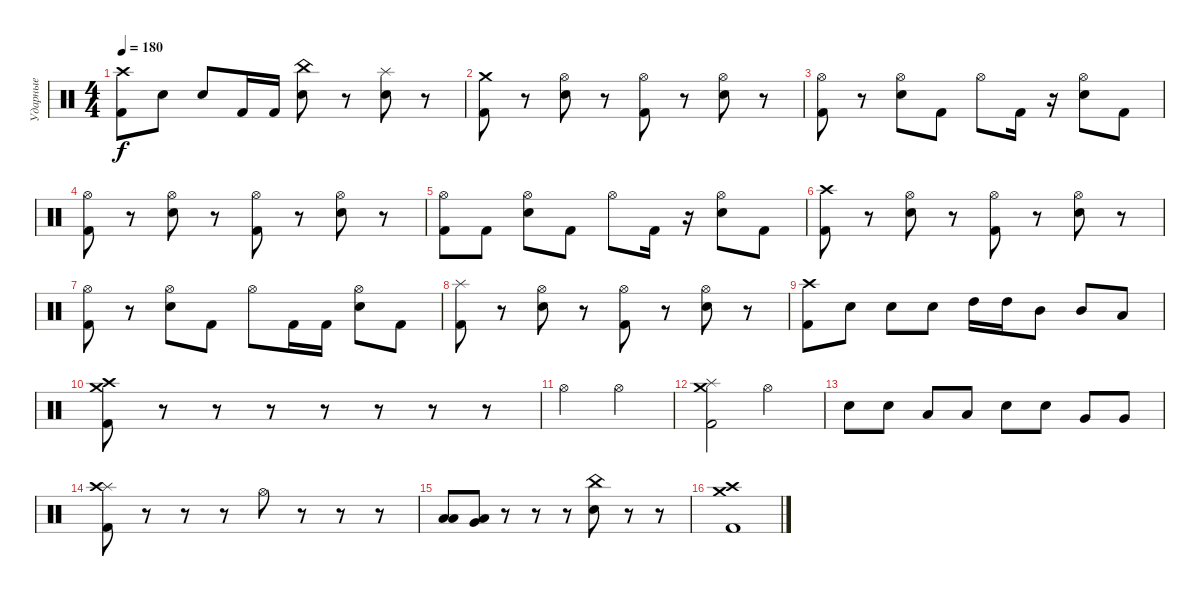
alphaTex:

\track ("Ударные" "Ударные") {instrument percussion}
\staff {score}
\articulation defaults
\ts (4 4)
\tempo 180
\clef neutral
\ks c
("Kick (hit) 2" "Crash high (hit)").8{dy f} "Electric Snare (hit)".8 "Electric Snare (hit)".8 "Kick (hit) 2".16 "Kick (hit) 2".16 ("Electric Snare (hit)" "China (hit)").8 r.8 ("Electric Snare (hit)" "Splash (hit)").8 r.8 |
("Kick (hit) 2" "Crash medium (hit)").8 r.8 ("Electric Snare (hit)" "Hi-Hat (open)").8 r.8 ("Kick (hit) 2" "Hi-Hat (open)").8 r.8 ("Electric Snare (hit)" "Hi-Hat (open)").8 r.8 |
("Kick (hit) 2" "Hi-Hat (open)").8 r.8 ("Electric Snare (hit)" "Hi-Hat (open)").8 "Kick (hit) 2".8 "Hi-Hat (open)".8 "Kick (hit) 2".16 r.16 ("Electric Snare (hit)" "Hi-Hat (open)").8 "Kick (hit) 2".8 |
("Kick (hit) 2" "Hi-Hat (open)").8 r.8 ("Electric Snare (hit)" "Hi-Hat (open)").8 r.8 ("Kick (hit) 2" "Hi-Hat (open)").8 r.8 ("Electric Snare (hit)" "Hi-Hat (open)").8 r.8 |
("Kick (hit) 2" "Hi-Hat (open)").8 "Kick (hit) 2".8 ("Electric Snare (hit)" "Hi-Hat (open)").8 "Kick (hit) 2".8 "Hi-Hat (open)".8 "Kick (hit) 2".16 r.16 ("Electric Snare (hit)" "Hi-Hat (open)").8 "Kick (hit) 2".8 |
("Kick (hit) 2" "Crash high (hit)").8 r.8 ("Electric Snare (hit)" "Hi-Hat (open)").8 r.8 ("Kick (hit) 2" "Hi-Hat (open)").8 r.8 ("Electric Snare (hit)" "Hi-Hat (open)").8 r.8 |
("Kick (hit) 2" "Hi-Hat (open)").8 r.8 ("Electric Snare (hit)" "Hi-Hat (open)").8 "Kick (hit) 2".8 "Hi-Hat (open)".8 "Kick (hit) 2".16 "Kick (hit) 2".16 ("Electric Snare (hit)" "Hi-Hat (open)").8 "Kick (hit) 2".8 |
("Kick (hit) 2" "Splash (hit)").8 r.8 ("Electric Snare (hit)" "Hi-Hat (open)").8 r.8 ("Kick (hit) 2" "Hi-Hat (open)").8 r.8 ("Electric Snare (hit)" "Hi-Hat (open)").8 r.8 |
("Kick (hit) 2" "Crash high (hit)").8 "Electric Snare (hit)".8 "Electric Snare (hit)".8 "Electric Snare (hit)".8 "High Tom (hit)".16 "High Tom (hit)".16 "Mid Tom (hit)".8 "Mid Tom (hit)".8 "Low Tom (hit)".8 |
("Kick (hit) 2" "Crash medium (hit)" "Crash high (hit)").8 r.8 r.8 r.8 r.8 r.8 r.8 r.8 |
"Hi-Hat (open)".2 "Hi-Hat (open)".2 |
("Kick (hit) 2" "Crash medium (hit)" "Splash (hit)").2 "Hi-Hat (open)".2 |
"Electric Snare (hit)".8 "Electric Snare (hit)".8 "Low Tom (hit)".8 "Low Tom (hit)".8 "Electric Snare (hit)".8 "Electric Snare (hit)".8 "Very Low Tom (hit)".8 "Very Low Tom (hit)".8 |
("Kick (hit) 2" "Splash (hit)" "Crash high (hit)").8 r.8 r.8 r.8 "Hi-Hat (open)".8 r.8 r.8 r.8 |
("Low Floor Tom (hit)" "Low Tom (hit)").8 ("Low Floor Tom (hit)" "Very Low Tom (hit)").8 r.8 r.8 r.8 ("Electric Snare (hit)" "China (hit)").8 r.8 r.8 |
("Kick (hit) 2" "Crash high (hit)" "Crash medium (hit)").1
